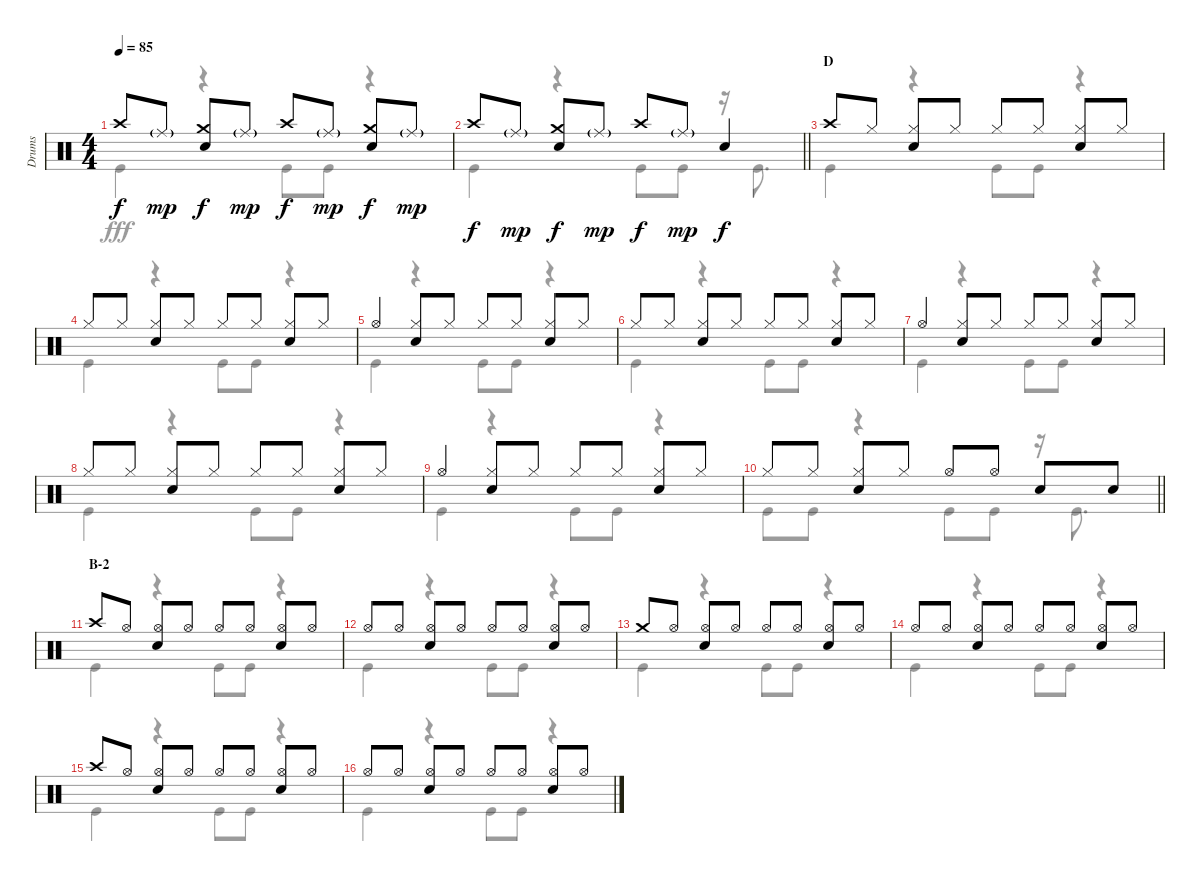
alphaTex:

\track ("Drums" "Drums") {instrument percussion}
\staff {score}
\articulation defaults
\voice
\ts (4 4)
\tempo 85
\clef neutral
\ks c "Crash high (hit)".8{dy f} "Ride (middle)"{g}.8{dy mp}
("Crash medium (hit)" "Snare (hit) 2").8{dy f} "Ride (middle)"{g}.8{dy mp} "Crash high (hit)".8{dy f} "Ride (middle)"{g}.8{dy mp} ("Crash medium (hit)" "Snare (hit) 2").8{dy f} "Ride (middle)"{g}.8{dy mp} |
\barLineRight lightlight "Crash high (hit)".8{dy f} "Ride (middle)"{g}.8{dy mp}
("Crash medium (hit)" "Snare (hit) 2").8{dy f} "Ride (middle)"{g}.8{dy mp} "Crash high (hit)".8{dy f} "Ride (middle)"{g}.8{dy mp} "Snare (hit) 2".4{dy f} |
\section ("" "D")
"Crash high (hit)".8 "Hi-Hat (closed)".8 ("Hi-Hat (closed)" "Snare (hit) 2").8 "Hi-Hat (closed)".8 "Hi-Hat (closed)".8 "Hi-Hat (closed)".8 ("Hi-Hat (closed)" "Snare (hit) 2").8 "Hi-Hat (closed)".8 |
"Hi-Hat (closed)".8 "Hi-Hat (closed)".8 ("Hi-Hat (closed)" "Snare (hit) 2").8 "Hi-Hat (closed)".8 "Hi-Hat (closed)".8 "Hi-Hat (closed)".8 ("Hi-Hat (closed)" "Snare (hit) 2").8 "Hi-Hat (closed)".8 |
"Hi-Hat (open)".4 ("Hi-Hat (closed)" "Snare (hit) 2").8 "Hi-Hat (closed)".8 "Hi-Hat (closed)".8 "Hi-Hat (closed)".8 ("Hi-Hat (closed)" "Snare (hit) 2").8 "Hi-Hat (closed)".8 |
"Hi-Hat (closed)".8 "Hi-Hat (closed)".8 ("Hi-Hat (closed)" "Snare (hit) 2").8 "Hi-Hat (closed)".8 "Hi-Hat (closed)".8 "Hi-Hat (closed)".8 ("Hi-Hat (closed)" "Snare (hit) 2").8 "Hi-Hat (closed)".8 |
"Hi-Hat (open)".4 ("Hi-Hat (closed)" "Snare (hit) 2").8 "Hi-Hat (closed)".8 "Hi-Hat (closed)".8 "Hi-Hat (closed)".8 ("Hi-Hat (closed)" "Snare (hit) 2").8 "Hi-Hat (closed)".8 |
"Hi-Hat (closed)".8 "Hi-Hat (closed)".8 ("Hi-Hat (closed)" "Snare (hit) 2").8 "Hi-Hat (closed)".8 "Hi-Hat (closed)".8 "Hi-Hat (closed)".8 ("Hi-Hat (closed)" "Snare (hit) 2").8 "Hi-Hat (closed)".8 |
"Hi-Hat (open)".4 ("Hi-Hat (closed)" "Snare (hit) 2").8 "Hi-Hat (closed)".8 "Hi-Hat (closed)".8 "Hi-Hat (closed)".8 ("Hi-Hat (closed)" "Snare (hit) 2").8 "Hi-Hat (closed)".8 |
\barLineRight lightlight "Hi-Hat (closed)".8 "Hi-Hat (closed)".8
("Hi-Hat (closed)" "Snare (hit) 2").8 "Hi-Hat (closed)".8 "Hi-Hat (open)".8 "Hi-Hat (open)".8 "Snare (hit) 2".8 "Snare (hit) 2".8 |
\section ("" "B-2")
"Crash high (hit)".8 "Hi-Hat (open)".8 ("Hi-Hat (open)" "Snare (hit) 2").8 "Hi-Hat (open)".8 "Hi-Hat (open)".8 "Hi-Hat (open)".8 ("Hi-Hat (open)" "Snare (hit) 2").8 "Hi-Hat (open)".8 |
"Hi-Hat (open)".8 "Hi-Hat (open)".8 ("Hi-Hat (open)" "Snare (hit) 2").8 "Hi-Hat (open)".8 "Hi-Hat (open)".8 "Hi-Hat (open)".8 ("Hi-Hat (open)" "Snare (hit) 2").8 "Hi-Hat (open)".8 |
"Crash medium (hit)".8 "Hi-Hat (open)".8 ("Hi-Hat (open)" "Snare (hit) 2").8 "Hi-Hat (open)".8 "Hi-Hat (open)".8 "Hi-Hat (open)".8 ("Hi-Hat (open)" "Snare (hit) 2").8 "Hi-Hat (open)".8 |
"Hi-Hat (open)".8 "Hi-Hat (open)".8 ("Hi-Hat (open)" "Snare (hit) 2").8 "Hi-Hat (open)".8 "Hi-Hat (open)".8 "Hi-Hat (open)".8 ("Hi-Hat (open)" "Snare (hit) 2").8 "Hi-Hat (open)".8 |
"Crash high (hit)".8 "Hi-Hat (open)".8 ("Hi-Hat (open)" "Snare (hit) 2").8 "Hi-Hat (open)".8 "Hi-Hat (open)".8 "Hi-Hat (open)".8 ("Hi-Hat (open)" "Snare (hit) 2").8 "Hi-Hat (open)".8 |
"Hi-Hat (open)".8 "Hi-Hat (open)".8 ("Hi-Hat (open)" "Snare (hit) 2").8 "Hi-Hat (open)".8 "Hi-Hat (open)".8 "Hi-Hat (open)".8 ("Hi-Hat (open)" "Snare (hit) 2").8 "Hi-Hat (open)".8
\voice
\clef neutral
\ottava regular
\simile none
\ks c "Kick (hit)".4{dy fff}
r.4 "Kick (hit)".8 "Kick (hit)".8 r.4 |
\barLineRight lightlight "Kick (hit)".4
r.4 "Kick (hit)".8 "Kick (hit)".8 r.16 "Kick (hit)".8{d} |
"Kick (hit)".4 r.4 "Kick (hit)".8 "Kick (hit)".8 r.4 |
"Kick (hit)".4 r.4 "Kick (hit)".8 "Kick (hit)".8 r.4 |
"Kick (hit)".4 r.4 "Kick (hit)".8 "Kick (hit)".8 r.4 |
"Kick (hit)".4 r.4 "Kick (hit)".8 "Kick (hit)".8 r.4 |
"Kick (hit)".4 r.4 "Kick (hit)".8 "Kick (hit)".8 r.4 |
"Kick (hit)".4 r.4 "Kick (hit)".8 "Kick (hit)".8 r.4 |
"Kick (hit)".4 r.4 "Kick (hit)".8 "Kick (hit)".8 r.4 |
\barLineRight lightlight "Kick (hit)".8 "Kick (hit)".8
r.4 "Kick (hit)".8 "Kick (hit)".8 r.16 "Kick (hit)".8{d} |
"Kick (hit)".4 r.4 "Kick (hit)".8 "Kick (hit)".8 r.4 |
"Kick (hit)".4 r.4 "Kick (hit)".8 "Kick (hit)".8 r.4 |
"Kick (hit)".4 r.4 "Kick (hit)".8 "Kick (hit)".8 r.4 |
"Kick (hit)".4 r.4 "Kick (hit)".8 "Kick (hit)".8 r.4 |
"Kick (hit)".4 r.4 "Kick (hit)".8 "Kick (hit)".8 r.4 |
"Kick (hit)".4 r.4 "Kick (hit)".8 "Kick (hit)".8 r.4
